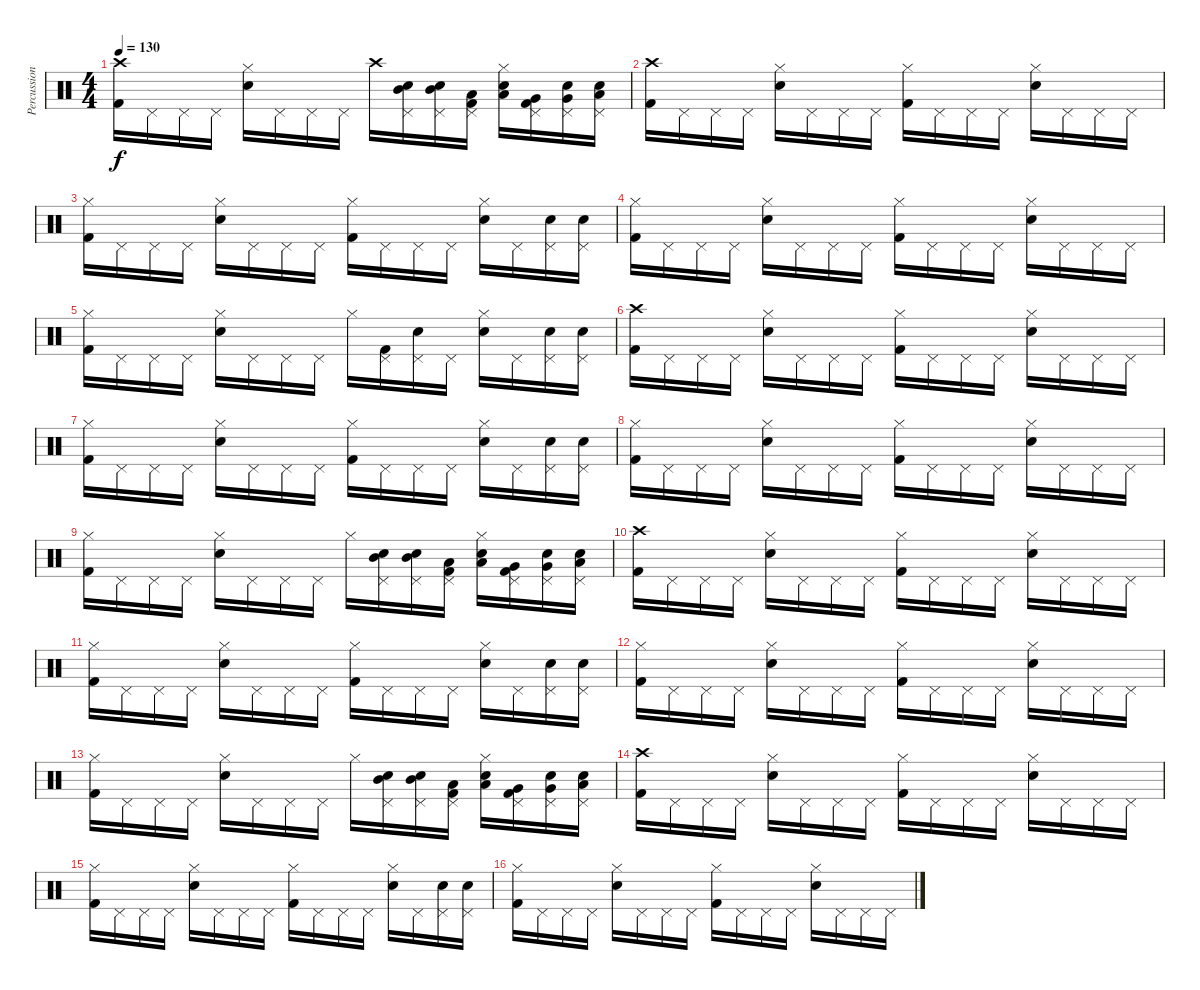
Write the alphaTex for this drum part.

\track ("Percussion" "Percussion") {instrument percussion}
\staff {score}
\articulation defaults
\ts (4 4)
\tempo 130
\clef neutral
\ks c
("Crash high (hit)" "Kick (hit) 2").16{dy f} "Pedal Hi-Hat (hit)".16 "Pedal Hi-Hat (hit)".16 "Pedal Hi-Hat (hit)".16 ("Hi-Hat (closed)" "Snare (hit) 2").16 "Pedal Hi-Hat (hit)".16 "Pedal Hi-Hat (hit)".16 "Pedal Hi-Hat (hit)".16 "Crash high (hit)".16 ("Pedal Hi-Hat (hit)" "Mid Tom (hit)" "Snare (hit) 2").16 ("Pedal Hi-Hat (hit)" "Mid Tom (hit)" "Snare (hit) 2").16 ("Pedal Hi-Hat (hit)" "Low Tom (hit)" "Kick (hit) 2").16 ("Hi-Hat (closed)" "Low Tom (hit)" "Snare (hit) 2").16 ("Pedal Hi-Hat (hit)" "Very Low Tom (hit)" "Kick (hit) 2").16 ("Pedal Hi-Hat (hit)" "Very Low Tom (hit)" "Snare (hit) 2").16 ("Pedal Hi-Hat (hit)" "Low Floor Tom (hit)" "Snare (hit) 2").16 |
("Crash high (hit)" "Kick (hit) 2").16 "Pedal Hi-Hat (hit)".16 "Pedal Hi-Hat (hit)".16 "Pedal Hi-Hat (hit)".16 ("Hi-Hat (closed)" "Snare (hit) 2").16 "Pedal Hi-Hat (hit)".16 "Pedal Hi-Hat (hit)".16 "Pedal Hi-Hat (hit)".16 ("Hi-Hat (closed)" "Kick (hit) 2").16 "Pedal Hi-Hat (hit)".16 "Pedal Hi-Hat (hit)".16 "Pedal Hi-Hat (hit)".16 ("Hi-Hat (closed)" "Snare (hit) 2").16 "Pedal Hi-Hat (hit)".16 "Pedal Hi-Hat (hit)".16 "Pedal Hi-Hat (hit)".16 |
("Hi-Hat (closed)" "Kick (hit) 2").16 "Pedal Hi-Hat (hit)".16 "Pedal Hi-Hat (hit)".16 "Pedal Hi-Hat (hit)".16 ("Hi-Hat (closed)" "Snare (hit) 2").16 "Pedal Hi-Hat (hit)".16 "Pedal Hi-Hat (hit)".16 "Pedal Hi-Hat (hit)".16 ("Hi-Hat (closed)" "Kick (hit) 2").16 "Pedal Hi-Hat (hit)".16 "Pedal Hi-Hat (hit)".16 "Pedal Hi-Hat (hit)".16 ("Hi-Hat (closed)" "Snare (hit) 2").16 "Pedal Hi-Hat (hit)".16 ("Pedal Hi-Hat (hit)" "Snare (hit) 2").16 ("Pedal Hi-Hat (hit)" "Snare (hit) 2").16 |
("Hi-Hat (closed)" "Kick (hit) 2").16 "Pedal Hi-Hat (hit)".16 "Pedal Hi-Hat (hit)".16 "Pedal Hi-Hat (hit)".16 ("Hi-Hat (closed)" "Snare (hit) 2").16 "Pedal Hi-Hat (hit)".16 "Pedal Hi-Hat (hit)".16 "Pedal Hi-Hat (hit)".16 ("Hi-Hat (closed)" "Kick (hit) 2").16 "Pedal Hi-Hat (hit)".16 "Pedal Hi-Hat (hit)".16 "Pedal Hi-Hat (hit)".16 ("Hi-Hat (closed)" "Snare (hit) 2").16 "Pedal Hi-Hat (hit)".16 "Pedal Hi-Hat (hit)".16 "Pedal Hi-Hat (hit)".16 |
("Hi-Hat (closed)" "Kick (hit) 2").16 "Pedal Hi-Hat (hit)".16 "Pedal Hi-Hat (hit)".16 "Pedal Hi-Hat (hit)".16 ("Hi-Hat (closed)" "Snare (hit) 2").16 "Pedal Hi-Hat (hit)".16 "Pedal Hi-Hat (hit)".16 "Pedal Hi-Hat (hit)".16 "Hi-Hat (closed)".16 ("Pedal Hi-Hat (hit)" "Kick (hit) 2").16 ("Pedal Hi-Hat (hit)" "Snare (hit) 2").16 "Pedal Hi-Hat (hit)".16 ("Hi-Hat (closed)" "Snare (hit) 2").16 "Pedal Hi-Hat (hit)".16 ("Pedal Hi-Hat (hit)" "Snare (hit) 2").16 ("Pedal Hi-Hat (hit)" "Snare (hit) 2").16 |
("Crash high (hit)" "Kick (hit) 2").16 "Pedal Hi-Hat (hit)".16 "Pedal Hi-Hat (hit)".16 "Pedal Hi-Hat (hit)".16 ("Hi-Hat (closed)" "Snare (hit) 2").16 "Pedal Hi-Hat (hit)".16 "Pedal Hi-Hat (hit)".16 "Pedal Hi-Hat (hit)".16 ("Hi-Hat (closed)" "Kick (hit) 2").16 "Pedal Hi-Hat (hit)".16 "Pedal Hi-Hat (hit)".16 "Pedal Hi-Hat (hit)".16 ("Hi-Hat (closed)" "Snare (hit) 2").16 "Pedal Hi-Hat (hit)".16 "Pedal Hi-Hat (hit)".16 "Pedal Hi-Hat (hit)".16 |
("Hi-Hat (closed)" "Kick (hit) 2").16 "Pedal Hi-Hat (hit)".16 "Pedal Hi-Hat (hit)".16 "Pedal Hi-Hat (hit)".16 ("Hi-Hat (closed)" "Snare (hit) 2").16 "Pedal Hi-Hat (hit)".16 "Pedal Hi-Hat (hit)".16 "Pedal Hi-Hat (hit)".16 ("Hi-Hat (closed)" "Kick (hit) 2").16 "Pedal Hi-Hat (hit)".16 "Pedal Hi-Hat (hit)".16 "Pedal Hi-Hat (hit)".16 ("Hi-Hat (closed)" "Snare (hit) 2").16 "Pedal Hi-Hat (hit)".16 ("Pedal Hi-Hat (hit)" "Snare (hit) 2").16 ("Pedal Hi-Hat (hit)" "Snare (hit) 2").16 |
("Hi-Hat (closed)" "Kick (hit) 2").16 "Pedal Hi-Hat (hit)".16 "Pedal Hi-Hat (hit)".16 "Pedal Hi-Hat (hit)".16 ("Hi-Hat (closed)" "Snare (hit) 2").16 "Pedal Hi-Hat (hit)".16 "Pedal Hi-Hat (hit)".16 "Pedal Hi-Hat (hit)".16 ("Hi-Hat (closed)" "Kick (hit) 2").16 "Pedal Hi-Hat (hit)".16 "Pedal Hi-Hat (hit)".16 "Pedal Hi-Hat (hit)".16 ("Hi-Hat (closed)" "Snare (hit) 2").16 "Pedal Hi-Hat (hit)".16 "Pedal Hi-Hat (hit)".16 "Pedal Hi-Hat (hit)".16 |
("Hi-Hat (closed)" "Kick (hit) 2").16 "Pedal Hi-Hat (hit)".16 "Pedal Hi-Hat (hit)".16 "Pedal Hi-Hat (hit)".16 ("Hi-Hat (closed)" "Snare (hit) 2").16 "Pedal Hi-Hat (hit)".16 "Pedal Hi-Hat (hit)".16 "Pedal Hi-Hat (hit)".16 "Hi-Hat (closed)".16 ("Pedal Hi-Hat (hit)" "Mid Tom (hit)" "Snare (hit) 2").16 ("Pedal Hi-Hat (hit)" "Mid Tom (hit)" "Snare (hit) 2").16 ("Pedal Hi-Hat (hit)" "Low Tom (hit)" "Kick (hit) 2").16 ("Hi-Hat (closed)" "Low Tom (hit)" "Snare (hit) 2").16 ("Pedal Hi-Hat (hit)" "Very Low Tom (hit)" "Kick (hit) 2").16 ("Pedal Hi-Hat (hit)" "Very Low Tom (hit)" "Snare (hit) 2").16 ("Pedal Hi-Hat (hit)" "Low Floor Tom (hit)" "Snare (hit) 2").16 |
("Crash high (hit)" "Kick (hit) 2").16 "Pedal Hi-Hat (hit)".16 "Pedal Hi-Hat (hit)".16 "Pedal Hi-Hat (hit)".16 ("Hi-Hat (closed)" "Snare (hit) 2").16 "Pedal Hi-Hat (hit)".16 "Pedal Hi-Hat (hit)".16 "Pedal Hi-Hat (hit)".16 ("Hi-Hat (closed)" "Kick (hit) 2").16 "Pedal Hi-Hat (hit)".16 "Pedal Hi-Hat (hit)".16 "Pedal Hi-Hat (hit)".16 ("Hi-Hat (closed)" "Snare (hit) 2").16 "Pedal Hi-Hat (hit)".16 "Pedal Hi-Hat (hit)".16 "Pedal Hi-Hat (hit)".16 |
("Hi-Hat (closed)" "Kick (hit) 2").16 "Pedal Hi-Hat (hit)".16 "Pedal Hi-Hat (hit)".16 "Pedal Hi-Hat (hit)".16 ("Hi-Hat (closed)" "Snare (hit) 2").16 "Pedal Hi-Hat (hit)".16 "Pedal Hi-Hat (hit)".16 "Pedal Hi-Hat (hit)".16 ("Hi-Hat (closed)" "Kick (hit) 2").16 "Pedal Hi-Hat (hit)".16 "Pedal Hi-Hat (hit)".16 "Pedal Hi-Hat (hit)".16 ("Hi-Hat (closed)" "Snare (hit) 2").16 "Pedal Hi-Hat (hit)".16 ("Pedal Hi-Hat (hit)" "Snare (hit) 2").16 ("Pedal Hi-Hat (hit)" "Snare (hit) 2").16 |
("Hi-Hat (closed)" "Kick (hit) 2").16 "Pedal Hi-Hat (hit)".16 "Pedal Hi-Hat (hit)".16 "Pedal Hi-Hat (hit)".16 ("Hi-Hat (closed)" "Snare (hit) 2").16 "Pedal Hi-Hat (hit)".16 "Pedal Hi-Hat (hit)".16 "Pedal Hi-Hat (hit)".16 ("Hi-Hat (closed)" "Kick (hit) 2").16 "Pedal Hi-Hat (hit)".16 "Pedal Hi-Hat (hit)".16 "Pedal Hi-Hat (hit)".16 ("Hi-Hat (closed)" "Snare (hit) 2").16 "Pedal Hi-Hat (hit)".16 "Pedal Hi-Hat (hit)".16 "Pedal Hi-Hat (hit)".16 |
("Hi-Hat (closed)" "Kick (hit) 2").16 "Pedal Hi-Hat (hit)".16 "Pedal Hi-Hat (hit)".16 "Pedal Hi-Hat (hit)".16 ("Hi-Hat (closed)" "Snare (hit) 2").16 "Pedal Hi-Hat (hit)".16 "Pedal Hi-Hat (hit)".16 "Pedal Hi-Hat (hit)".16 "Hi-Hat (closed)".16 ("Pedal Hi-Hat (hit)" "Mid Tom (hit)" "Snare (hit) 2").16 ("Pedal Hi-Hat (hit)" "Mid Tom (hit)" "Snare (hit) 2").16 ("Pedal Hi-Hat (hit)" "Low Tom (hit)" "Kick (hit) 2").16 ("Hi-Hat (closed)" "Low Tom (hit)" "Snare (hit) 2").16 ("Pedal Hi-Hat (hit)" "Very Low Tom (hit)" "Kick (hit) 2").16 ("Pedal Hi-Hat (hit)" "Very Low Tom (hit)" "Snare (hit) 2").16 ("Pedal Hi-Hat (hit)" "Low Floor Tom (hit)" "Snare (hit) 2").16 |
("Crash high (hit)" "Kick (hit) 2").16 "Pedal Hi-Hat (hit)".16 "Pedal Hi-Hat (hit)".16 "Pedal Hi-Hat (hit)".16 ("Hi-Hat (closed)" "Snare (hit) 2").16 "Pedal Hi-Hat (hit)".16 "Pedal Hi-Hat (hit)".16 "Pedal Hi-Hat (hit)".16 ("Hi-Hat (closed)" "Kick (hit) 2").16 "Pedal Hi-Hat (hit)".16 "Pedal Hi-Hat (hit)".16 "Pedal Hi-Hat (hit)".16 ("Hi-Hat (closed)" "Snare (hit) 2").16 "Pedal Hi-Hat (hit)".16 "Pedal Hi-Hat (hit)".16 "Pedal Hi-Hat (hit)".16 |
("Hi-Hat (closed)" "Kick (hit) 2").16 "Pedal Hi-Hat (hit)".16 "Pedal Hi-Hat (hit)".16 "Pedal Hi-Hat (hit)".16 ("Hi-Hat (closed)" "Snare (hit) 2").16 "Pedal Hi-Hat (hit)".16 "Pedal Hi-Hat (hit)".16 "Pedal Hi-Hat (hit)".16 ("Hi-Hat (closed)" "Kick (hit) 2").16 "Pedal Hi-Hat (hit)".16 "Pedal Hi-Hat (hit)".16 "Pedal Hi-Hat (hit)".16 ("Hi-Hat (closed)" "Snare (hit) 2").16 "Pedal Hi-Hat (hit)".16 ("Pedal Hi-Hat (hit)" "Snare (hit) 2").16 ("Pedal Hi-Hat (hit)" "Snare (hit) 2").16 |
("Hi-Hat (closed)" "Kick (hit) 2").16 "Pedal Hi-Hat (hit)".16 "Pedal Hi-Hat (hit)".16 "Pedal Hi-Hat (hit)".16 ("Hi-Hat (closed)" "Snare (hit) 2").16 "Pedal Hi-Hat (hit)".16 "Pedal Hi-Hat (hit)".16 "Pedal Hi-Hat (hit)".16 ("Hi-Hat (closed)" "Kick (hit) 2").16 "Pedal Hi-Hat (hit)".16 "Pedal Hi-Hat (hit)".16 "Pedal Hi-Hat (hit)".16 ("Hi-Hat (closed)" "Snare (hit) 2").16 "Pedal Hi-Hat (hit)".16 "Pedal Hi-Hat (hit)".16 "Pedal Hi-Hat (hit)".16
